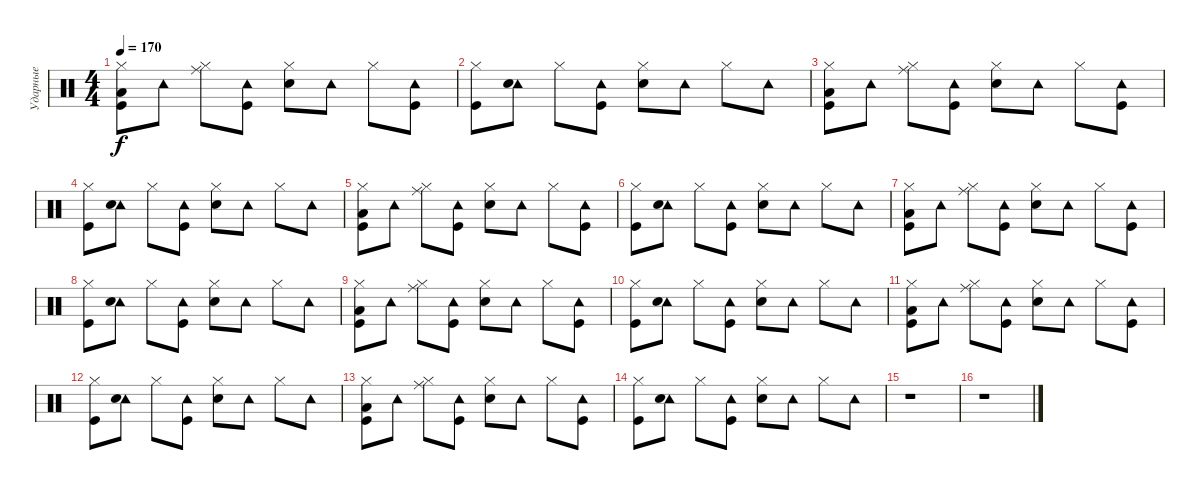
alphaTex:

\track ("Ударные" "Ударные") {instrument percussion}
\staff {score}
\articulation defaults
\ts (4 4)
\tempo 170
\clef neutral
\ks c
("Hi-Hat (closed)" "Kick (hit)" "Low Floor Tom (hit)").8{dy f volume 8 balance 16} "Tambourine (hit)".8 ("Hi-Hat (closed)" "Ride (middle)").8 ("Tambourine (hit)" "Kick (hit)").8 ("Hi-Hat (closed)" "Electric Snare (hit)").8 "Tambourine (hit)".8 "Hi-Hat (closed)".8 ("Tambourine (hit)" "Kick (hit)").8 |
("Hi-Hat (closed)" "Kick (hit)").8{volume 8 balance 8} ("Tambourine (hit)" "Electric Snare (hit)").8 "Hi-Hat (closed)".8 ("Tambourine (hit)" "Kick (hit)").8 ("Hi-Hat (closed)" "Electric Snare (hit)").8 "Tambourine (hit)".8 "Hi-Hat (closed)".8 "Tambourine (hit)".8 |
("Hi-Hat (closed)" "Kick (hit)" "Low Floor Tom (hit)").8{volume 8 balance 0} "Tambourine (hit)".8 ("Hi-Hat (closed)" "Ride (middle)").8 ("Tambourine (hit)" "Kick (hit)").8 ("Hi-Hat (closed)" "Electric Snare (hit)").8 "Tambourine (hit)".8 "Hi-Hat (closed)".8 ("Tambourine (hit)" "Kick (hit)").8 |
("Hi-Hat (closed)" "Kick (hit)").8{volume 8 balance 8} ("Tambourine (hit)" "Electric Snare (hit)").8 "Hi-Hat (closed)".8 ("Tambourine (hit)" "Kick (hit)").8 ("Hi-Hat (closed)" "Electric Snare (hit)").8 "Tambourine (hit)".8 "Hi-Hat (closed)".8 "Tambourine (hit)".8 |
("Hi-Hat (closed)" "Kick (hit)" "Low Floor Tom (hit)").8{volume 8 balance 16} "Tambourine (hit)".8 ("Hi-Hat (closed)" "Ride (middle)").8 ("Tambourine (hit)" "Kick (hit)").8 ("Hi-Hat (closed)" "Electric Snare (hit)").8 "Tambourine (hit)".8 "Hi-Hat (closed)".8 ("Tambourine (hit)" "Kick (hit)").8 |
("Hi-Hat (closed)" "Kick (hit)").8{volume 8 balance 8} ("Tambourine (hit)" "Electric Snare (hit)").8 "Hi-Hat (closed)".8 ("Tambourine (hit)" "Kick (hit)").8 ("Hi-Hat (closed)" "Electric Snare (hit)").8 "Tambourine (hit)".8 "Hi-Hat (closed)".8 "Tambourine (hit)".8 |
("Hi-Hat (closed)" "Kick (hit)" "Low Floor Tom (hit)").8{volume 8 balance 0} "Tambourine (hit)".8 ("Hi-Hat (closed)" "Ride (middle)").8 ("Tambourine (hit)" "Kick (hit)").8 ("Hi-Hat (closed)" "Electric Snare (hit)").8 "Tambourine (hit)".8 "Hi-Hat (closed)".8 ("Tambourine (hit)" "Kick (hit)").8 |
("Hi-Hat (closed)" "Kick (hit)").8{volume 8 balance 8} ("Tambourine (hit)" "Electric Snare (hit)").8 "Hi-Hat (closed)".8 ("Tambourine (hit)" "Kick (hit)").8 ("Hi-Hat (closed)" "Electric Snare (hit)").8 "Tambourine (hit)".8 "Hi-Hat (closed)".8 "Tambourine (hit)".8 |
("Hi-Hat (closed)" "Kick (hit)" "Low Floor Tom (hit)").8{volume 8 balance 16} "Tambourine (hit)".8 ("Hi-Hat (closed)" "Ride (middle)").8 ("Tambourine (hit)" "Kick (hit)").8 ("Hi-Hat (closed)" "Electric Snare (hit)").8 "Tambourine (hit)".8 "Hi-Hat (closed)".8 ("Tambourine (hit)" "Kick (hit)").8 |
("Hi-Hat (closed)" "Kick (hit)").8{volume 8 balance 8} ("Tambourine (hit)" "Electric Snare (hit)").8 "Hi-Hat (closed)".8 ("Tambourine (hit)" "Kick (hit)").8 ("Hi-Hat (closed)" "Electric Snare (hit)").8 "Tambourine (hit)".8 "Hi-Hat (closed)".8 "Tambourine (hit)".8 |
("Hi-Hat (closed)" "Kick (hit)" "Low Floor Tom (hit)").8{volume 8 balance 0} "Tambourine (hit)".8 ("Hi-Hat (closed)" "Ride (middle)").8 ("Tambourine (hit)" "Kick (hit)").8 ("Hi-Hat (closed)" "Electric Snare (hit)").8 "Tambourine (hit)".8 "Hi-Hat (closed)".8 ("Tambourine (hit)" "Kick (hit)").8 |
("Hi-Hat (closed)" "Kick (hit)").8{volume 8 balance 8} ("Tambourine (hit)" "Electric Snare (hit)").8 "Hi-Hat (closed)".8 ("Tambourine (hit)" "Kick (hit)").8 ("Hi-Hat (closed)" "Electric Snare (hit)").8 "Tambourine (hit)".8 "Hi-Hat (closed)".8 "Tambourine (hit)".8 |
("Hi-Hat (closed)" "Kick (hit)" "Low Floor Tom (hit)").8{volume 8 balance 16} "Tambourine (hit)".8 ("Hi-Hat (closed)" "Ride (middle)").8 ("Tambourine (hit)" "Kick (hit)").8 ("Hi-Hat (closed)" "Electric Snare (hit)").8 "Tambourine (hit)".8 "Hi-Hat (closed)".8 ("Tambourine (hit)" "Kick (hit)").8 |
("Hi-Hat (closed)" "Kick (hit)").8{volume 8 balance 8} ("Tambourine (hit)" "Electric Snare (hit)").8 "Hi-Hat (closed)".8 ("Tambourine (hit)" "Kick (hit)").8 ("Hi-Hat (closed)" "Electric Snare (hit)").8 "Tambourine (hit)".8 "Hi-Hat (closed)".8 "Tambourine (hit)".8 |
r.1 |
r.1
